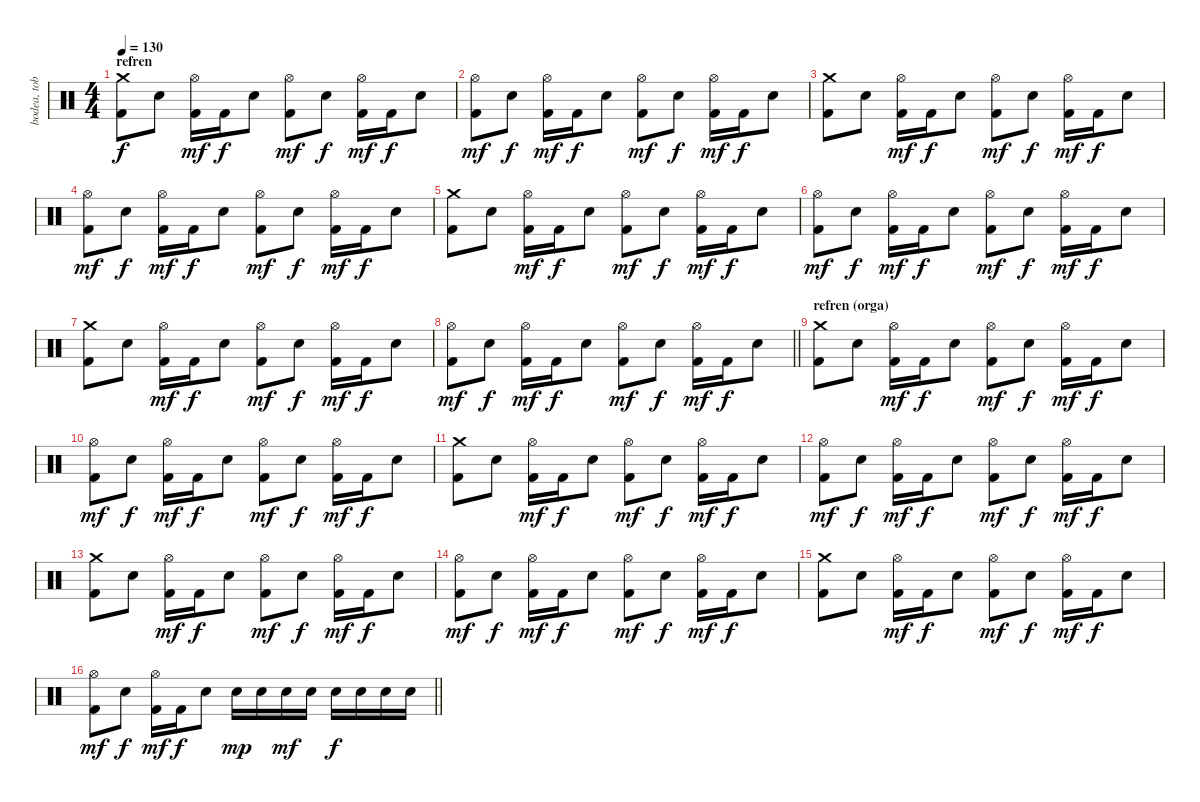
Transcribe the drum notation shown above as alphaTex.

\track ("bodea, tobe" "bodea, tob") {instrument percussion}
\staff {score}
\articulation defaults
\ts (4 4)
\section ("" "refren")
\tempo 130
\clef neutral
\ks c
("Crash medium (hit)" "Kick (hit) 2").8{dy f} "Electric Snare (hit)".8 ("Hi-Hat (open)" "Kick (hit) 2").16{dy mf} "Kick (hit) 2".16{dy f} "Electric Snare (hit)".8 ("Hi-Hat (open)" "Kick (hit) 2").8{dy mf} "Electric Snare (hit)".8{dy f} ("Hi-Hat (open)" "Kick (hit) 2").16{dy mf} "Kick (hit) 2".16{dy f} "Electric Snare (hit)".8 |
("Hi-Hat (open)" "Kick (hit) 2").8{dy mf} "Electric Snare (hit)".8{dy f} ("Hi-Hat (open)" "Kick (hit) 2").16{dy mf} "Kick (hit) 2".16{dy f} "Electric Snare (hit)".8 ("Hi-Hat (open)" "Kick (hit) 2").8{dy mf} "Electric Snare (hit)".8{dy f} ("Hi-Hat (open)" "Kick (hit) 2").16{dy mf} "Kick (hit) 2".16{dy f} "Electric Snare (hit)".8 |
("Crash medium (hit)" "Kick (hit) 2").8 "Electric Snare (hit)".8 ("Hi-Hat (open)" "Kick (hit) 2").16{dy mf} "Kick (hit) 2".16{dy f} "Electric Snare (hit)".8 ("Hi-Hat (open)" "Kick (hit) 2").8{dy mf} "Electric Snare (hit)".8{dy f} ("Hi-Hat (open)" "Kick (hit) 2").16{dy mf} "Kick (hit) 2".16{dy f} "Electric Snare (hit)".8 |
("Hi-Hat (open)" "Kick (hit) 2").8{dy mf} "Electric Snare (hit)".8{dy f} ("Hi-Hat (open)" "Kick (hit) 2").16{dy mf} "Kick (hit) 2".16{dy f} "Electric Snare (hit)".8 ("Hi-Hat (open)" "Kick (hit) 2").8{dy mf} "Electric Snare (hit)".8{dy f} ("Hi-Hat (open)" "Kick (hit) 2").16{dy mf} "Kick (hit) 2".16{dy f} "Electric Snare (hit)".8 |
("Crash medium (hit)" "Kick (hit) 2").8 "Electric Snare (hit)".8 ("Hi-Hat (open)" "Kick (hit) 2").16{dy mf} "Kick (hit) 2".16{dy f} "Electric Snare (hit)".8 ("Hi-Hat (open)" "Kick (hit) 2").8{dy mf} "Electric Snare (hit)".8{dy f} ("Hi-Hat (open)" "Kick (hit) 2").16{dy mf} "Kick (hit) 2".16{dy f} "Electric Snare (hit)".8 |
("Hi-Hat (open)" "Kick (hit) 2").8{dy mf} "Electric Snare (hit)".8{dy f} ("Hi-Hat (open)" "Kick (hit) 2").16{dy mf} "Kick (hit) 2".16{dy f} "Electric Snare (hit)".8 ("Hi-Hat (open)" "Kick (hit) 2").8{dy mf} "Electric Snare (hit)".8{dy f} ("Hi-Hat (open)" "Kick (hit) 2").16{dy mf} "Kick (hit) 2".16{dy f} "Electric Snare (hit)".8 |
("Crash medium (hit)" "Kick (hit) 2").8 "Electric Snare (hit)".8 ("Hi-Hat (open)" "Kick (hit) 2").16{dy mf} "Kick (hit) 2".16{dy f} "Electric Snare (hit)".8 ("Hi-Hat (open)" "Kick (hit) 2").8{dy mf} "Electric Snare (hit)".8{dy f} ("Hi-Hat (open)" "Kick (hit) 2").16{dy mf} "Kick (hit) 2".16{dy f} "Electric Snare (hit)".8 |
\barLineRight lightlight
("Hi-Hat (open)" "Kick (hit) 2").8{dy mf} "Electric Snare (hit)".8{dy f} ("Hi-Hat (open)" "Kick (hit) 2").16{dy mf} "Kick (hit) 2".16{dy f} "Electric Snare (hit)".8 ("Hi-Hat (open)" "Kick (hit) 2").8{dy mf} "Electric Snare (hit)".8{dy f} ("Hi-Hat (open)" "Kick (hit) 2").16{dy mf} "Kick (hit) 2".16{dy f} "Electric Snare (hit)".8 |
\section ("" "refren (orga)")
("Crash medium (hit)" "Kick (hit) 2").8 "Electric Snare (hit)".8 ("Hi-Hat (open)" "Kick (hit) 2").16{dy mf} "Kick (hit) 2".16{dy f} "Electric Snare (hit)".8 ("Hi-Hat (open)" "Kick (hit) 2").8{dy mf} "Electric Snare (hit)".8{dy f} ("Hi-Hat (open)" "Kick (hit) 2").16{dy mf} "Kick (hit) 2".16{dy f} "Electric Snare (hit)".8 |
("Hi-Hat (open)" "Kick (hit) 2").8{dy mf} "Electric Snare (hit)".8{dy f} ("Hi-Hat (open)" "Kick (hit) 2").16{dy mf} "Kick (hit) 2".16{dy f} "Electric Snare (hit)".8 ("Hi-Hat (open)" "Kick (hit) 2").8{dy mf} "Electric Snare (hit)".8{dy f} ("Hi-Hat (open)" "Kick (hit) 2").16{dy mf} "Kick (hit) 2".16{dy f} "Electric Snare (hit)".8 |
("Crash medium (hit)" "Kick (hit) 2").8 "Electric Snare (hit)".8 ("Hi-Hat (open)" "Kick (hit) 2").16{dy mf} "Kick (hit) 2".16{dy f} "Electric Snare (hit)".8 ("Hi-Hat (open)" "Kick (hit) 2").8{dy mf} "Electric Snare (hit)".8{dy f} ("Hi-Hat (open)" "Kick (hit) 2").16{dy mf} "Kick (hit) 2".16{dy f} "Electric Snare (hit)".8 |
("Hi-Hat (open)" "Kick (hit) 2").8{dy mf} "Electric Snare (hit)".8{dy f} ("Hi-Hat (open)" "Kick (hit) 2").16{dy mf} "Kick (hit) 2".16{dy f} "Electric Snare (hit)".8 ("Hi-Hat (open)" "Kick (hit) 2").8{dy mf} "Electric Snare (hit)".8{dy f} ("Hi-Hat (open)" "Kick (hit) 2").16{dy mf} "Kick (hit) 2".16{dy f} "Electric Snare (hit)".8 |
("Crash medium (hit)" "Kick (hit) 2").8 "Electric Snare (hit)".8 ("Hi-Hat (open)" "Kick (hit) 2").16{dy mf} "Kick (hit) 2".16{dy f} "Electric Snare (hit)".8 ("Hi-Hat (open)" "Kick (hit) 2").8{dy mf} "Electric Snare (hit)".8{dy f} ("Hi-Hat (open)" "Kick (hit) 2").16{dy mf} "Kick (hit) 2".16{dy f} "Electric Snare (hit)".8 |
("Hi-Hat (open)" "Kick (hit) 2").8{dy mf} "Electric Snare (hit)".8{dy f} ("Hi-Hat (open)" "Kick (hit) 2").16{dy mf} "Kick (hit) 2".16{dy f} "Electric Snare (hit)".8 ("Hi-Hat (open)" "Kick (hit) 2").8{dy mf} "Electric Snare (hit)".8{dy f} ("Hi-Hat (open)" "Kick (hit) 2").16{dy mf} "Kick (hit) 2".16{dy f} "Electric Snare (hit)".8 |
("Crash medium (hit)" "Kick (hit) 2").8 "Electric Snare (hit)".8 ("Hi-Hat (open)" "Kick (hit) 2").16{dy mf} "Kick (hit) 2".16{dy f} "Electric Snare (hit)".8 ("Hi-Hat (open)" "Kick (hit) 2").8{dy mf} "Electric Snare (hit)".8{dy f} ("Hi-Hat (open)" "Kick (hit) 2").16{dy mf} "Kick (hit) 2".16{dy f} "Electric Snare (hit)".8 |
\barLineRight lightlight
("Hi-Hat (open)" "Kick (hit) 2").8{dy mf} "Electric Snare (hit)".8{dy f} ("Hi-Hat (open)" "Kick (hit) 2").16{dy mf} "Kick (hit) 2".16{dy f} "Electric Snare (hit)".8 "Electric Snare (hit)".16{dy mp} "Electric Snare (hit)".16 "Electric Snare (hit)".16{dy mf} "Electric Snare (hit)".16 "Electric Snare (hit)".16{dy f} "Electric Snare (hit)".16 "Electric Snare (hit)".16 "Electric Snare (hit)".16
